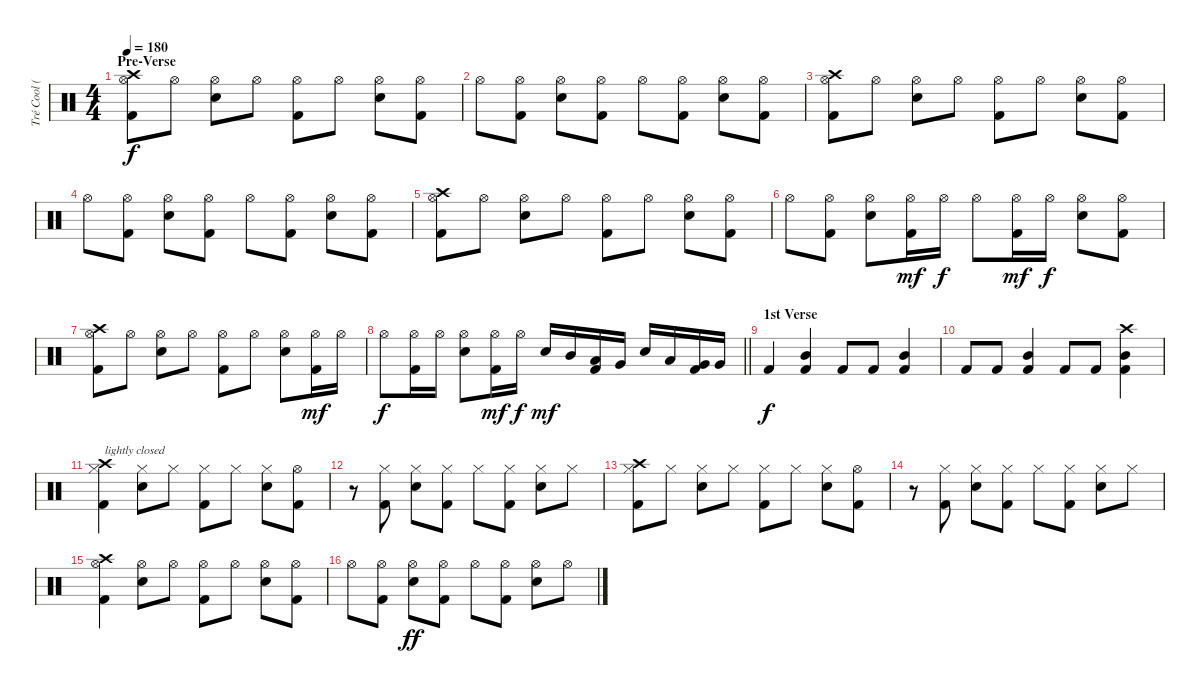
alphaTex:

\track ("Tré Cool (Drums)" "Tré Cool (") {instrument percussion}
\staff {score}
\articulation defaults
\ts (4 4)
\section ("" "Pre-Verse")
\tempo 180
\clef neutral
\ks c
("Crash high (hit)" "Hi-Hat (open)" "Kick (hit) 2").8{dy f} "Hi-Hat (open)".8 ("Hi-Hat (open)" "Electric Snare (hit)").8 "Hi-Hat (open)".8 ("Hi-Hat (open)" "Kick (hit) 2").8 "Hi-Hat (open)".8 ("Hi-Hat (open)" "Electric Snare (hit)").8 ("Hi-Hat (open)" "Kick (hit) 2").8 |
"Hi-Hat (open)".8 ("Hi-Hat (open)" "Kick (hit) 2").8 ("Hi-Hat (open)" "Electric Snare (hit)").8 ("Hi-Hat (open)" "Kick (hit) 2").8 "Hi-Hat (open)".8 ("Hi-Hat (open)" "Kick (hit) 2").8 ("Hi-Hat (open)" "Electric Snare (hit)").8 ("Hi-Hat (open)" "Kick (hit) 2").8 |
("Crash high (hit)" "Hi-Hat (open)" "Kick (hit) 2").8 "Hi-Hat (open)".8 ("Hi-Hat (open)" "Electric Snare (hit)").8 "Hi-Hat (open)".8 ("Hi-Hat (open)" "Kick (hit) 2").8 "Hi-Hat (open)".8 ("Hi-Hat (open)" "Electric Snare (hit)").8 ("Hi-Hat (open)" "Kick (hit) 2").8 |
"Hi-Hat (open)".8 ("Hi-Hat (open)" "Kick (hit) 2").8 ("Hi-Hat (open)" "Electric Snare (hit)").8 ("Hi-Hat (open)" "Kick (hit) 2").8 "Hi-Hat (open)".8 ("Hi-Hat (open)" "Kick (hit) 2").8 ("Hi-Hat (open)" "Electric Snare (hit)").8 ("Hi-Hat (open)" "Kick (hit) 2").8 |
("Crash high (hit)" "Hi-Hat (open)" "Kick (hit) 2").8 "Hi-Hat (open)".8 ("Hi-Hat (open)" "Electric Snare (hit)").8 "Hi-Hat (open)".8 ("Hi-Hat (open)" "Kick (hit) 2").8 "Hi-Hat (open)".8 ("Hi-Hat (open)" "Electric Snare (hit)").8 ("Hi-Hat (open)" "Kick (hit) 2").8 |
"Hi-Hat (open)".8 ("Hi-Hat (open)" "Kick (hit) 2").8 ("Hi-Hat (open)" "Electric Snare (hit)").8 ("Hi-Hat (open)" "Kick (hit) 2").16{dy mf} "Hi-Hat (open)".16{dy f} "Hi-Hat (open)".8 ("Hi-Hat (open)" "Kick (hit) 2").16{dy mf} "Hi-Hat (open)".16{dy f} ("Hi-Hat (open)" "Electric Snare (hit)").8 ("Hi-Hat (open)" "Kick (hit) 2").8 |
("Crash high (hit)" "Hi-Hat (open)" "Kick (hit) 2").8 "Hi-Hat (open)".8 ("Hi-Hat (open)" "Electric Snare (hit)").8 "Hi-Hat (open)".8 ("Hi-Hat (open)" "Kick (hit) 2").8 "Hi-Hat (open)".8 ("Hi-Hat (open)" "Electric Snare (hit)").8 ("Hi-Hat (open)" "Kick (hit) 2").16{dy mf} "Hi-Hat (open)".16 |
\barLineRight lightlight "Hi-Hat (open)".8{dy f}
("Hi-Hat (open)" "Kick (hit) 2").16 "Hi-Hat (open)".16 ("Hi-Hat (open)" "Electric Snare (hit)").8 ("Hi-Hat (open)" "Kick (hit) 2").16{dy mf} "Hi-Hat (open)".16{dy f} "Electric Snare (hit)".16{dy mf} "Mid Tom (hit)".16 ("Low Tom (hit)" "Kick (hit) 2").16 "Very Low Tom (hit)".16 "Electric Snare (hit)".16 "Low Tom (hit)".16 ("Very Low Tom (hit)" "Kick (hit) 2").16 "Very Low Tom (hit)".16 |
\section ("" "1st Verse")
"Kick (hit) 2".4{dy f} ("Mid Tom (hit)" "Kick (hit) 2").4 "Kick (hit) 2".8 "Kick (hit) 2".8 ("Mid Tom (hit)" "Kick (hit) 2").4 |
"Kick (hit) 2".8 "Kick (hit) 2".8 ("Mid Tom (hit)" "Kick (hit) 2").4 "Kick (hit) 2".8 "Kick (hit) 2".8 ("Crash high (hit)" "Mid Tom (hit)" "Kick (hit) 2").4 |
("Crash high (hit)" "Hi-Hat (closed)" "Kick (hit) 2").4{txt "lightly closed"} ("Hi-Hat (closed)" "Electric Snare (hit)").8 "Hi-Hat (closed)".8 ("Hi-Hat (closed)" "Kick (hit) 2").8 "Hi-Hat (closed)".8 ("Hi-Hat (closed)" "Electric Snare (hit)").8 ("Hi-Hat (open)" "Kick (hit) 2").8 |
r.8 ("Hi-Hat (closed)" "Kick (hit) 2").8 ("Hi-Hat (closed)" "Electric Snare (hit)").8 ("Hi-Hat (closed)" "Kick (hit) 2").8 "Hi-Hat (closed)".8 ("Hi-Hat (closed)" "Kick (hit) 2").8 ("Hi-Hat (closed)" "Electric Snare (hit)").8 "Hi-Hat (closed)".8 |
("Crash high (hit)" "Hi-Hat (closed)" "Kick (hit) 2").8 "Hi-Hat (closed)".8 ("Hi-Hat (closed)" "Electric Snare (hit)").8 "Hi-Hat (closed)".8 ("Hi-Hat (closed)" "Kick (hit) 2").8 "Hi-Hat (closed)".8 ("Hi-Hat (closed)" "Electric Snare (hit)").8 ("Hi-Hat (open)" "Kick (hit) 2").8 |
r.8 ("Hi-Hat (closed)" "Kick (hit) 2").8 ("Hi-Hat (closed)" "Electric Snare (hit)").8 ("Hi-Hat (closed)" "Kick (hit) 2").8 "Hi-Hat (closed)".8 ("Hi-Hat (closed)" "Kick (hit) 2").8 ("Hi-Hat (closed)" "Electric Snare (hit)").8 "Hi-Hat (closed)".8 |
("Crash high (hit)" "Hi-Hat (open)" "Kick (hit) 2").4 ("Hi-Hat (open)" "Electric Snare (hit)").8 "Hi-Hat (open)".8 ("Hi-Hat (open)" "Kick (hit) 2").8 "Hi-Hat (open)".8 ("Hi-Hat (open)" "Electric Snare (hit)").8 ("Hi-Hat (open)" "Kick (hit) 2").8 |
"Hi-Hat (open)".8 ("Hi-Hat (open)" "Kick (hit) 2").8 ("Hi-Hat (open)" "Electric Snare (hit)").8{dy ff} ("Hi-Hat (open)" "Kick (hit) 2").8 "Hi-Hat (open)".8 ("Hi-Hat (open)" "Kick (hit) 2").8 ("Hi-Hat (open)" "Electric Snare (hit)").8 "Hi-Hat (open)".8
